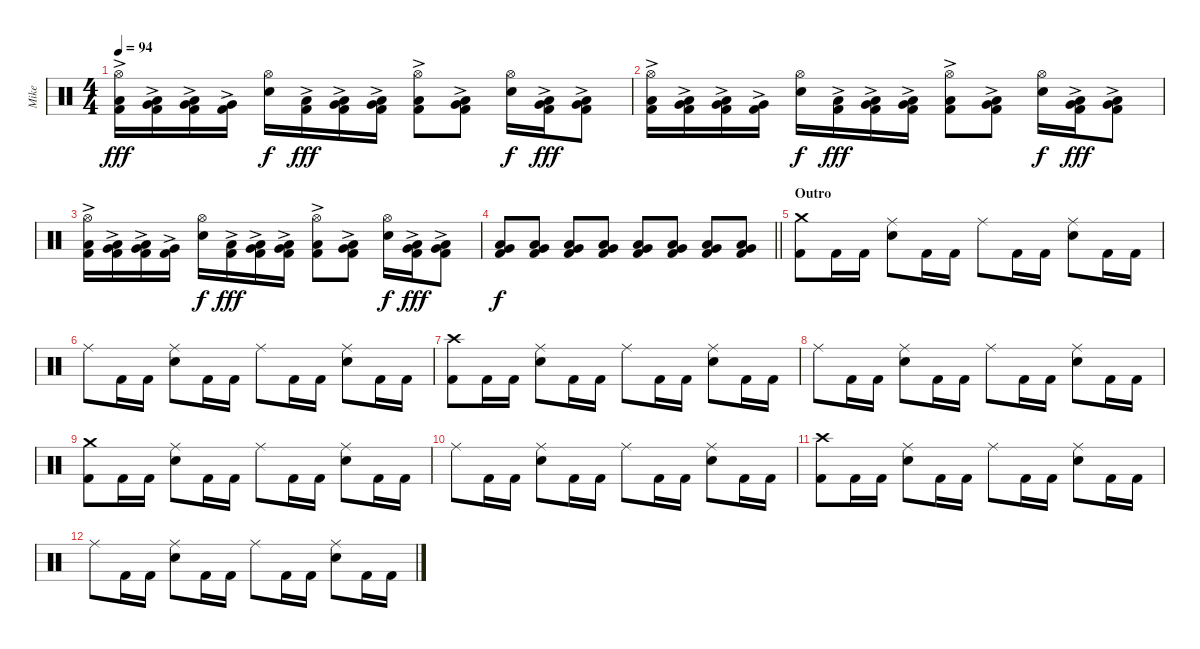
\track ("Mike" "Mike") {instrument percussion}
\staff {score}
\articulation defaults
\ts (4 4)
\tempo 94
\clef neutral
\ks c
("Hi-Hat (open)" "Low Tom (hit)"{ac} "Kick (hit) 2").16{dy fff} ("Low Tom (hit)"{ac} "Very Low Tom (hit)"{ac} "Kick (hit) 2").16 ("Very Low Tom (hit)"{ac} "Low Floor Tom (hit)"{ac} "Kick (hit) 2").16 ("Very Low Tom (hit)"{ac} "Kick (hit) 2").16 ("Hi-Hat (open)" "Snare (hit) 2").16{dy f} ("Low Tom (hit)"{ac} "Kick (hit) 2").16{dy fff} ("Low Tom (hit)"{ac} "Very Low Tom (hit)"{ac} "Kick (hit) 2").16 ("Very Low Tom (hit)"{ac} "Low Floor Tom (hit)"{ac} "Kick (hit) 2").16 ("Hi-Hat (open)" "Low Floor Tom (hit)"{ac} "Kick (hit) 2").8 ("Very Low Tom (hit)"{ac} "Low Floor Tom (hit)"{ac} "Kick (hit) 2").8 ("Hi-Hat (open)" "Snare (hit) 2").16{dy f} ("Very Low Tom (hit)"{ac} "Low Floor Tom (hit)"{ac} "Kick (hit) 2").16{dy fff} ("Very Low Tom (hit)"{ac} "Low Tom (hit)"{ac} "Kick (hit) 2").8 |
("Hi-Hat (open)" "Low Tom (hit)"{ac} "Kick (hit) 2").16 ("Low Tom (hit)"{ac} "Very Low Tom (hit)"{ac} "Kick (hit) 2").16 ("Very Low Tom (hit)"{ac} "Low Floor Tom (hit)"{ac} "Kick (hit) 2").16 ("Very Low Tom (hit)"{ac} "Kick (hit) 2").16 ("Hi-Hat (open)" "Snare (hit) 2").16{dy f} ("Low Tom (hit)"{ac} "Kick (hit) 2").16{dy fff} ("Low Tom (hit)"{ac} "Very Low Tom (hit)"{ac} "Kick (hit) 2").16 ("Very Low Tom (hit)"{ac} "Low Floor Tom (hit)"{ac} "Kick (hit) 2").16 ("Hi-Hat (open)" "Low Floor Tom (hit)"{ac} "Kick (hit) 2").8 ("Very Low Tom (hit)"{ac} "Low Floor Tom (hit)"{ac} "Kick (hit) 2").8 ("Hi-Hat (open)" "Snare (hit) 2").16{dy f} ("Very Low Tom (hit)"{ac} "Low Floor Tom (hit)"{ac} "Kick (hit) 2").16{dy fff} ("Very Low Tom (hit)"{ac} "Low Tom (hit)"{ac} "Kick (hit) 2").8 |
("Hi-Hat (open)" "Low Tom (hit)"{ac} "Kick (hit) 2").16 ("Low Tom (hit)"{ac} "Very Low Tom (hit)"{ac} "Kick (hit) 2").16 ("Very Low Tom (hit)"{ac} "Low Floor Tom (hit)"{ac} "Kick (hit) 2").16 ("Very Low Tom (hit)"{ac} "Kick (hit) 2").16 ("Hi-Hat (open)" "Snare (hit) 2").16{dy f} ("Low Tom (hit)"{ac} "Kick (hit) 2").16{dy fff} ("Low Tom (hit)"{ac} "Very Low Tom (hit)"{ac} "Kick (hit) 2").16 ("Very Low Tom (hit)"{ac} "Low Floor Tom (hit)"{ac} "Kick (hit) 2").16 ("Hi-Hat (open)" "Low Floor Tom (hit)"{ac} "Kick (hit) 2").8 ("Very Low Tom (hit)"{ac} "Low Floor Tom (hit)"{ac} "Kick (hit) 2").8 ("Hi-Hat (open)" "Snare (hit) 2").16{dy f} ("Very Low Tom (hit)"{ac} "Low Floor Tom (hit)"{ac} "Kick (hit) 2").16{dy fff} ("Very Low Tom (hit)"{ac} "Low Tom (hit)"{ac} "Kick (hit) 2").8 |
\barLineRight lightlight
("Low Tom (hit)" "Very Low Tom (hit)" "Kick (hit) 2").8{dy f} ("Low Tom (hit)" "Very Low Tom (hit)" "Kick (hit) 2").8 ("Low Tom (hit)" "Very Low Tom (hit)" "Kick (hit) 2").8 ("Low Tom (hit)" "Very Low Tom (hit)" "Kick (hit) 2").8 ("Low Tom (hit)" "Very Low Tom (hit)" "Kick (hit) 2").8 ("Low Tom (hit)" "Very Low Tom (hit)" "Kick (hit) 2").8 ("Low Tom (hit)" "Very Low Tom (hit)" "Kick (hit) 2").8 ("Low Tom (hit)" "Very Low Tom (hit)" "Kick (hit) 2").8 |
\section ("" "Outro")
("Crash medium (hit)" "Kick (hit) 2").8 "Kick (hit) 2".16 "Kick (hit) 2".16 ("Ride (middle)" "Snare (hit) 2").8 "Kick (hit) 2".16 "Kick (hit) 2".16 "Ride (middle)".8 "Kick (hit) 2".16 "Kick (hit) 2".16 ("Ride (middle)" "Snare (hit) 2").8 "Kick (hit) 2".16 "Kick (hit) 2".16 |
"Ride (middle)".8 "Kick (hit) 2".16 "Kick (hit) 2".16 ("Ride (middle)" "Snare (hit) 2").8 "Kick (hit) 2".16 "Kick (hit) 2".16 "Ride (middle)".8 "Kick (hit) 2".16 "Kick (hit) 2".16 ("Ride (middle)" "Snare (hit) 2").8 "Kick (hit) 2".16 "Kick (hit) 2".16 |
("Crash high (hit)" "Kick (hit) 2").8 "Kick (hit) 2".16 "Kick (hit) 2".16 ("Ride (middle)" "Snare (hit) 2").8 "Kick (hit) 2".16 "Kick (hit) 2".16 "Ride (middle)".8 "Kick (hit) 2".16 "Kick (hit) 2".16 ("Ride (middle)" "Snare (hit) 2").8 "Kick (hit) 2".16 "Kick (hit) 2".16 |
"Ride (middle)".8 "Kick (hit) 2".16 "Kick (hit) 2".16 ("Ride (middle)" "Snare (hit) 2").8 "Kick (hit) 2".16 "Kick (hit) 2".16 "Ride (middle)".8 "Kick (hit) 2".16 "Kick (hit) 2".16 ("Ride (middle)" "Snare (hit) 2").8 "Kick (hit) 2".16 "Kick (hit) 2".16 |
("Crash medium (hit)" "Kick (hit) 2").8 "Kick (hit) 2".16 "Kick (hit) 2".16 ("Ride (middle)" "Snare (hit) 2").8 "Kick (hit) 2".16 "Kick (hit) 2".16 "Ride (middle)".8 "Kick (hit) 2".16 "Kick (hit) 2".16 ("Ride (middle)" "Snare (hit) 2").8 "Kick (hit) 2".16 "Kick (hit) 2".16 |
"Ride (middle)".8 "Kick (hit) 2".16 "Kick (hit) 2".16 ("Ride (middle)" "Snare (hit) 2").8 "Kick (hit) 2".16 "Kick (hit) 2".16 "Ride (middle)".8 "Kick (hit) 2".16 "Kick (hit) 2".16 ("Ride (middle)" "Snare (hit) 2").8 "Kick (hit) 2".16 "Kick (hit) 2".16 |
("Crash high (hit)" "Kick (hit) 2").8 "Kick (hit) 2".16 "Kick (hit) 2".16 ("Ride (middle)" "Snare (hit) 2").8 "Kick (hit) 2".16 "Kick (hit) 2".16 "Ride (middle)".8 "Kick (hit) 2".16 "Kick (hit) 2".16 ("Ride (middle)" "Snare (hit) 2").8 "Kick (hit) 2".16 "Kick (hit) 2".16 |
"Ride (middle)".8 "Kick (hit) 2".16 "Kick (hit) 2".16 ("Ride (middle)" "Snare (hit) 2").8 "Kick (hit) 2".16 "Kick (hit) 2".16 "Ride (middle)".8 "Kick (hit) 2".16 "Kick (hit) 2".16 ("Ride (middle)" "Snare (hit) 2").8 "Kick (hit) 2".16 "Kick (hit) 2".16
